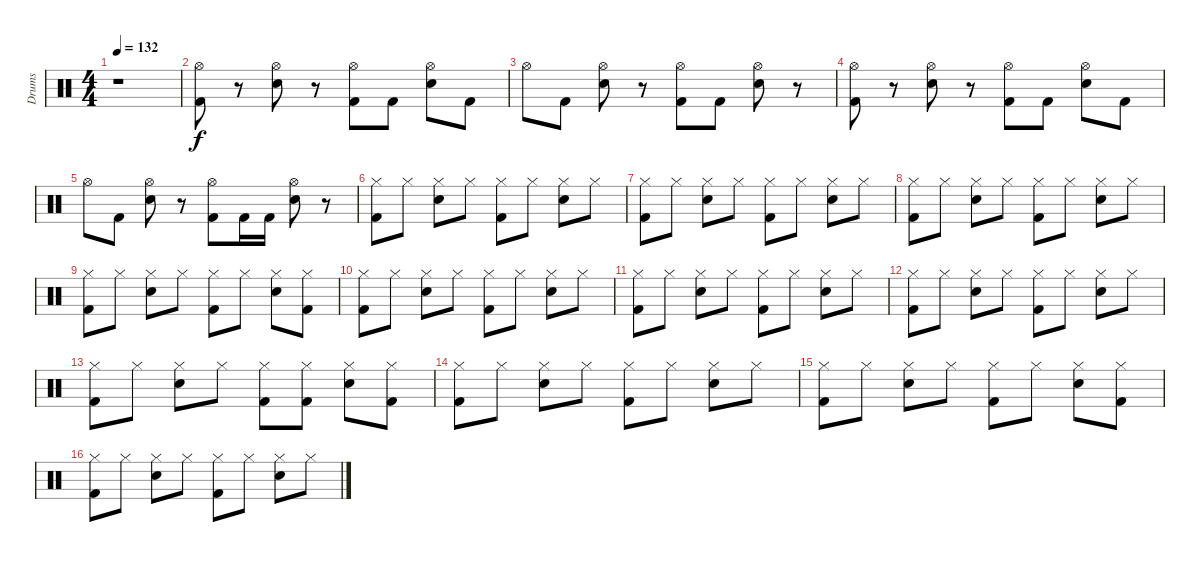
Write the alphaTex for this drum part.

\track ("Drums" "Drums") {instrument percussion}
\staff {score}
\articulation defaults
\ts (4 4)
\tempo 132
\clef neutral
\ks c
r.1{dy f} |
("Kick (hit) 2" "Hi-Hat (open)").8 r.8 ("Snare (hit) 2" "Hi-Hat (open)").8 r.8 ("Kick (hit) 2" "Hi-Hat (open)").8 "Kick (hit) 2".8 ("Snare (hit) 2" "Hi-Hat (open)").8 "Kick (hit) 2".8 |
"Hi-Hat (open)".8 "Kick (hit) 2".8 ("Snare (hit) 2" "Hi-Hat (open)").8 r.8 ("Kick (hit) 2" "Hi-Hat (open)").8 "Kick (hit) 2".8 ("Snare (hit) 2" "Hi-Hat (open)").8 r.8 |
("Kick (hit) 2" "Hi-Hat (open)").8 r.8 ("Snare (hit) 2" "Hi-Hat (open)").8 r.8 ("Kick (hit) 2" "Hi-Hat (open)").8 "Kick (hit) 2".8 ("Snare (hit) 2" "Hi-Hat (open)").8 "Kick (hit) 2".8 |
"Hi-Hat (open)".8 "Kick (hit) 2".8 ("Snare (hit) 2" "Hi-Hat (open)").8 r.8 ("Kick (hit) 2" "Hi-Hat (open)").8 "Kick (hit) 2".16 "Kick (hit) 2".16 ("Snare (hit) 2" "Hi-Hat (open)").8 r.8 |
("Kick (hit) 2" "Hi-Hat (closed)").8 "Hi-Hat (closed)".8 ("Snare (hit) 2" "Hi-Hat (closed)").8 "Hi-Hat (closed)".8 ("Kick (hit) 2" "Hi-Hat (closed)").8 "Hi-Hat (closed)".8 ("Snare (hit) 2" "Hi-Hat (closed)").8 "Hi-Hat (closed)".8 |
("Kick (hit) 2" "Hi-Hat (closed)").8 "Hi-Hat (closed)".8 ("Snare (hit) 2" "Hi-Hat (closed)").8 "Hi-Hat (closed)".8 ("Kick (hit) 2" "Hi-Hat (closed)").8 "Hi-Hat (closed)".8 ("Snare (hit) 2" "Hi-Hat (closed)").8 "Hi-Hat (closed)".8 |
("Kick (hit) 2" "Hi-Hat (closed)").8 "Hi-Hat (closed)".8 ("Snare (hit) 2" "Hi-Hat (closed)").8 "Hi-Hat (closed)".8 ("Kick (hit) 2" "Hi-Hat (closed)").8 "Hi-Hat (closed)".8 ("Snare (hit) 2" "Hi-Hat (closed)").8 "Hi-Hat (closed)".8 |
("Kick (hit) 2" "Hi-Hat (closed)").8 "Hi-Hat (closed)".8 ("Snare (hit) 2" "Hi-Hat (closed)").8 "Hi-Hat (closed)".8 ("Kick (hit) 2" "Hi-Hat (closed)").8 "Hi-Hat (closed)".8 ("Snare (hit) 2" "Hi-Hat (closed)").8 ("Kick (hit) 2" "Hi-Hat (closed)").8 |
("Kick (hit) 2" "Hi-Hat (closed)").8 "Hi-Hat (closed)".8 ("Snare (hit) 2" "Hi-Hat (closed)").8 "Hi-Hat (closed)".8 ("Kick (hit) 2" "Hi-Hat (closed)").8 "Hi-Hat (closed)".8 ("Snare (hit) 2" "Hi-Hat (closed)").8 "Hi-Hat (closed)".8 |
("Kick (hit) 2" "Hi-Hat (closed)").8 "Hi-Hat (closed)".8 ("Snare (hit) 2" "Hi-Hat (closed)").8 "Hi-Hat (closed)".8 ("Kick (hit) 2" "Hi-Hat (closed)").8 "Hi-Hat (closed)".8 ("Snare (hit) 2" "Hi-Hat (closed)").8 "Hi-Hat (closed)".8 |
("Kick (hit) 2" "Hi-Hat (closed)").8 "Hi-Hat (closed)".8 ("Snare (hit) 2" "Hi-Hat (closed)").8 "Hi-Hat (closed)".8 ("Kick (hit) 2" "Hi-Hat (closed)").8 "Hi-Hat (closed)".8 ("Snare (hit) 2" "Hi-Hat (closed)").8 "Hi-Hat (closed)".8 |
("Kick (hit) 2" "Hi-Hat (closed)").8 "Hi-Hat (closed)".8 ("Snare (hit) 2" "Hi-Hat (closed)").8 "Hi-Hat (closed)".8 ("Kick (hit) 2" "Hi-Hat (closed)").8 ("Kick (hit) 2" "Hi-Hat (closed)").8 ("Snare (hit) 2" "Hi-Hat (closed)").8 ("Kick (hit) 2" "Hi-Hat (closed)").8 |
("Kick (hit) 2" "Hi-Hat (closed)").8 "Hi-Hat (closed)".8 ("Snare (hit) 2" "Hi-Hat (closed)").8 "Hi-Hat (closed)".8 ("Kick (hit) 2" "Hi-Hat (closed)").8 "Hi-Hat (closed)".8 ("Snare (hit) 2" "Hi-Hat (closed)").8 "Hi-Hat (closed)".8 |
("Kick (hit) 2" "Hi-Hat (closed)").8 "Hi-Hat (closed)".8 ("Snare (hit) 2" "Hi-Hat (closed)").8 "Hi-Hat (closed)".8 ("Kick (hit) 2" "Hi-Hat (closed)").8 "Hi-Hat (closed)".8 ("Snare (hit) 2" "Hi-Hat (closed)").8 ("Kick (hit) 2" "Hi-Hat (closed)").8 |
("Kick (hit) 2" "Hi-Hat (closed)").8 "Hi-Hat (closed)".8 ("Snare (hit) 2" "Hi-Hat (closed)").8 "Hi-Hat (closed)".8 ("Kick (hit) 2" "Hi-Hat (closed)").8 "Hi-Hat (closed)".8 ("Snare (hit) 2" "Hi-Hat (closed)").8 "Hi-Hat (closed)".8
